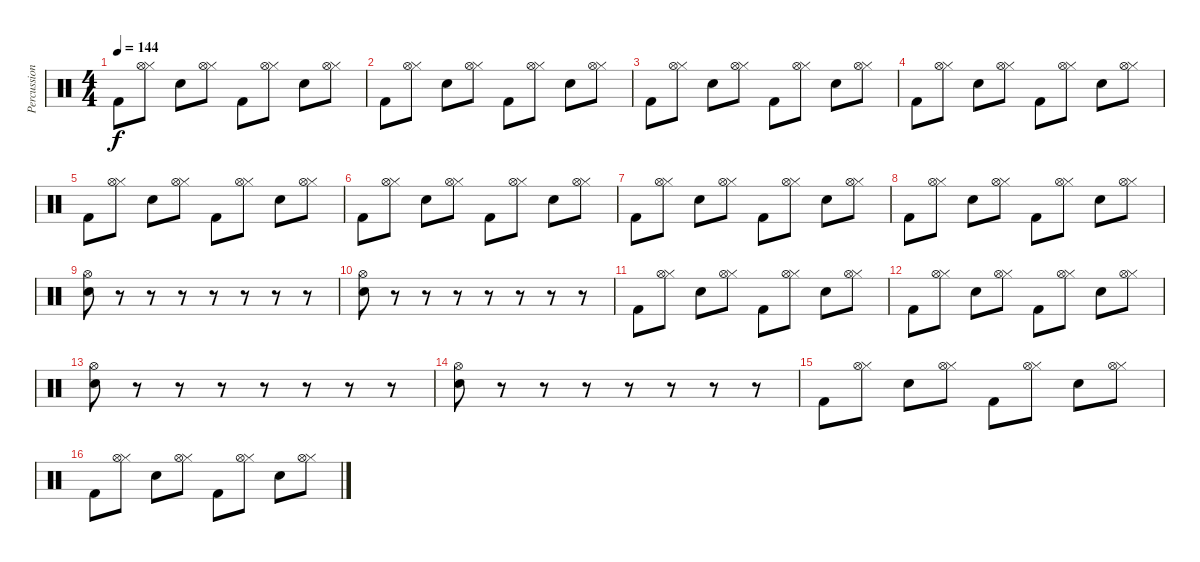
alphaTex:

\track ("Percussion" "Percussion") {instrument percussion}
\staff {score}
\articulation defaults
\ts (4 4)
\tempo 144
\clef neutral
\ks c "Kick (hit) 2".8{dy f}
("Hi-Hat (closed)" "Hi-Hat (open)").8 "Electric Snare (hit)".8 ("Hi-Hat (closed)" "Hi-Hat (open)").8 "Kick (hit) 2".8 ("Hi-Hat (closed)" "Hi-Hat (open)").8 "Electric Snare (hit)".8 ("Hi-Hat (closed)" "Hi-Hat (open)").8 |
"Kick (hit) 2".8 ("Hi-Hat (closed)" "Hi-Hat (open)").8 "Electric Snare (hit)".8 ("Hi-Hat (closed)" "Hi-Hat (open)").8 "Kick (hit) 2".8 ("Hi-Hat (closed)" "Hi-Hat (open)").8 "Electric Snare (hit)".8 ("Hi-Hat (closed)" "Hi-Hat (open)").8 |
"Kick (hit) 2".8 ("Hi-Hat (closed)" "Hi-Hat (open)").8 "Electric Snare (hit)".8 ("Hi-Hat (closed)" "Hi-Hat (open)").8 "Kick (hit) 2".8 ("Hi-Hat (closed)" "Hi-Hat (open)").8 "Electric Snare (hit)".8 ("Hi-Hat (closed)" "Hi-Hat (open)").8 |
"Kick (hit) 2".8 ("Hi-Hat (closed)" "Hi-Hat (open)").8 "Electric Snare (hit)".8 ("Hi-Hat (closed)" "Hi-Hat (open)").8 "Kick (hit) 2".8 ("Hi-Hat (closed)" "Hi-Hat (open)").8 "Electric Snare (hit)".8 ("Hi-Hat (closed)" "Hi-Hat (open)").8 |
"Kick (hit) 2".8 ("Hi-Hat (closed)" "Hi-Hat (open)").8 "Electric Snare (hit)".8 ("Hi-Hat (closed)" "Hi-Hat (open)").8 "Kick (hit) 2".8 ("Hi-Hat (closed)" "Hi-Hat (open)").8 "Electric Snare (hit)".8 ("Hi-Hat (closed)" "Hi-Hat (open)").8 |
"Kick (hit) 2".8 ("Hi-Hat (closed)" "Hi-Hat (open)").8 "Electric Snare (hit)".8 ("Hi-Hat (closed)" "Hi-Hat (open)").8 "Kick (hit) 2".8 ("Hi-Hat (closed)" "Hi-Hat (open)").8 "Electric Snare (hit)".8 ("Hi-Hat (closed)" "Hi-Hat (open)").8 |
"Kick (hit) 2".8 ("Hi-Hat (closed)" "Hi-Hat (open)").8 "Electric Snare (hit)".8 ("Hi-Hat (closed)" "Hi-Hat (open)").8 "Kick (hit) 2".8 ("Hi-Hat (closed)" "Hi-Hat (open)").8 "Electric Snare (hit)".8 ("Hi-Hat (closed)" "Hi-Hat (open)").8 |
"Kick (hit) 2".8 ("Hi-Hat (closed)" "Hi-Hat (open)").8 "Electric Snare (hit)".8 ("Hi-Hat (closed)" "Hi-Hat (open)").8 "Kick (hit) 2".8 ("Hi-Hat (closed)" "Hi-Hat (open)").8 "Electric Snare (hit)".8 ("Hi-Hat (closed)" "Hi-Hat (open)").8 |
("Hi-Hat (open)" "Electric Snare (hit)").8 r.8 r.8 r.8 r.8 r.8 r.8 r.8 |
("Hi-Hat (open)" "Electric Snare (hit)").8 r.8 r.8 r.8 r.8 r.8 r.8 r.8 |
"Kick (hit) 2".8 ("Hi-Hat (closed)" "Hi-Hat (open)").8 "Electric Snare (hit)".8 ("Hi-Hat (closed)" "Hi-Hat (open)").8 "Kick (hit) 2".8 ("Hi-Hat (closed)" "Hi-Hat (open)").8 "Electric Snare (hit)".8 ("Hi-Hat (closed)" "Hi-Hat (open)").8 |
"Kick (hit) 2".8 ("Hi-Hat (closed)" "Hi-Hat (open)").8 "Electric Snare (hit)".8 ("Hi-Hat (closed)" "Hi-Hat (open)").8 "Kick (hit) 2".8 ("Hi-Hat (closed)" "Hi-Hat (open)").8 "Electric Snare (hit)".8 ("Hi-Hat (closed)" "Hi-Hat (open)").8 |
("Hi-Hat (open)" "Electric Snare (hit)").8 r.8 r.8 r.8 r.8 r.8 r.8 r.8 |
("Hi-Hat (open)" "Electric Snare (hit)").8 r.8 r.8 r.8 r.8 r.8 r.8 r.8 |
"Kick (hit) 2".8 ("Hi-Hat (closed)" "Hi-Hat (open)").8 "Electric Snare (hit)".8 ("Hi-Hat (closed)" "Hi-Hat (open)").8 "Kick (hit) 2".8 ("Hi-Hat (closed)" "Hi-Hat (open)").8 "Electric Snare (hit)".8 ("Hi-Hat (closed)" "Hi-Hat (open)").8 |
"Kick (hit) 2".8 ("Hi-Hat (closed)" "Hi-Hat (open)").8 "Electric Snare (hit)".8 ("Hi-Hat (closed)" "Hi-Hat (open)").8 "Kick (hit) 2".8 ("Hi-Hat (closed)" "Hi-Hat (open)").8 "Electric Snare (hit)".8 ("Hi-Hat (closed)" "Hi-Hat (open)").8
